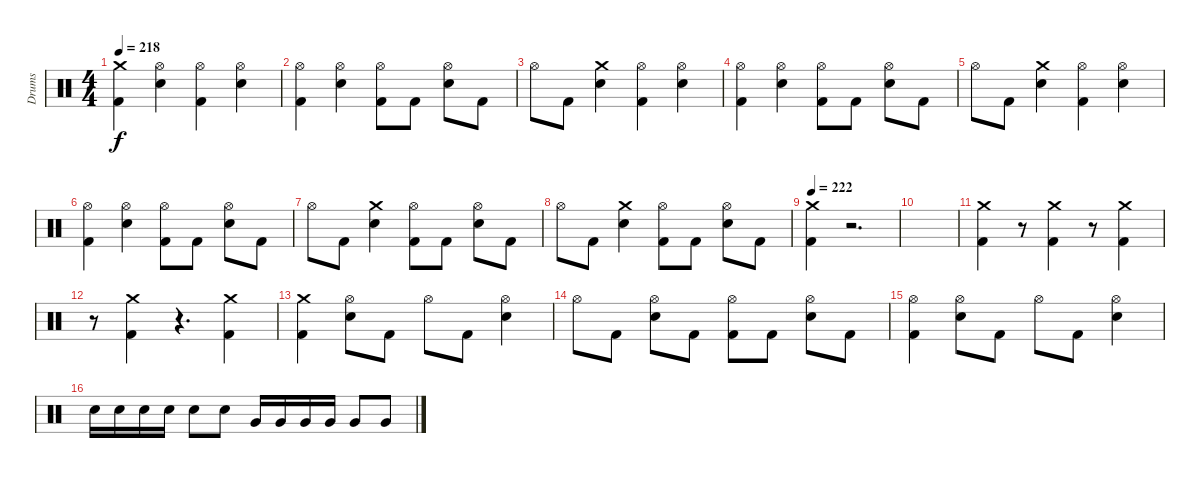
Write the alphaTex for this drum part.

\track ("Drums" "Drums") {instrument percussion}
\staff {score}
\articulation defaults
\ts (4 4)
\tempo 218
\clef neutral
\ks c
("Kick (hit) 2" "Crash medium (hit)").4{dy f} ("Snare (hit) 2" "Hi-Hat (open)").4 ("Kick (hit) 2" "Hi-Hat (open)").4 ("Snare (hit) 2" "Hi-Hat (open)").4 |
("Kick (hit) 2" "Hi-Hat (open)").4 ("Snare (hit) 2" "Hi-Hat (open)").4 ("Kick (hit) 2" "Hi-Hat (open)").8 "Kick (hit) 2".8 ("Snare (hit) 2" "Hi-Hat (open)").8 "Kick (hit) 2".8 |
"Hi-Hat (open)".8 "Kick (hit) 2".8 ("Snare (hit) 2" "Crash medium (hit)").4 ("Kick (hit) 2" "Hi-Hat (open)").4 ("Snare (hit) 2" "Hi-Hat (open)").4 |
("Kick (hit) 2" "Hi-Hat (open)").4 ("Snare (hit) 2" "Hi-Hat (open)").4 ("Kick (hit) 2" "Hi-Hat (open)").8 "Kick (hit) 2".8 ("Snare (hit) 2" "Hi-Hat (open)").8 "Kick (hit) 2".8 |
"Hi-Hat (open)".8 "Kick (hit) 2".8 ("Snare (hit) 2" "Crash medium (hit)").4 ("Kick (hit) 2" "Hi-Hat (open)").4 ("Snare (hit) 2" "Hi-Hat (open)").4 |
("Kick (hit) 2" "Hi-Hat (open)").4 ("Snare (hit) 2" "Hi-Hat (open)").4 ("Kick (hit) 2" "Hi-Hat (open)").8 "Kick (hit) 2".8 ("Snare (hit) 2" "Hi-Hat (open)").8 "Kick (hit) 2".8 |
"Hi-Hat (open)".8 "Kick (hit) 2".8 ("Snare (hit) 2" "Crash medium (hit)").4 ("Kick (hit) 2" "Hi-Hat (open)").8 "Kick (hit) 2".8 ("Snare (hit) 2" "Hi-Hat (open)").8 "Kick (hit) 2".8 |
"Hi-Hat (open)".8 "Kick (hit) 2".8 ("Snare (hit) 2" "Crash medium (hit)").4 ("Kick (hit) 2" "Hi-Hat (open)").8 "Kick (hit) 2".8 ("Snare (hit) 2" "Hi-Hat (open)").8 "Kick (hit) 2".8 |
\tempo 222
("Kick (hit) 2" "Crash medium (hit)").4 r.2{d} |
|
("Kick (hit) 2" "Crash medium (hit)").4 r.8 ("Kick (hit) 2" "Crash medium (hit)").4 r.8 ("Kick (hit) 2" "Crash medium (hit)").4 |
r.8 ("Kick (hit) 2" "Crash medium (hit)").4 r.4{d} ("Kick (hit) 2" "Crash medium (hit)").4 |
("Kick (hit) 2" "Crash medium (hit)").4 ("Snare (hit) 2" "Hi-Hat (open)").8 "Kick (hit) 2".8 "Hi-Hat (open)".8 "Kick (hit) 2".8 ("Snare (hit) 2" "Hi-Hat (open)").4 |
"Hi-Hat (open)".8 "Kick (hit) 2".8 ("Snare (hit) 2" "Hi-Hat (open)").8 "Kick (hit) 2".8 ("Kick (hit) 2" "Hi-Hat (open)").8 "Kick (hit) 2".8 ("Snare (hit) 2" "Hi-Hat (open)").8 "Kick (hit) 2".8 |
("Kick (hit) 2" "Hi-Hat (open)").4 ("Snare (hit) 2" "Hi-Hat (open)").8 "Kick (hit) 2".8 "Hi-Hat (open)".8 "Kick (hit) 2".8 ("Snare (hit) 2" "Hi-Hat (open)").4 |
"Snare (hit) 2".16 "Snare (hit) 2".16 "Snare (hit) 2".16 "Snare (hit) 2".16 "Snare (hit) 2".8 "Snare (hit) 2".8 "Very Low Tom (hit)".16 "Very Low Tom (hit)".16 "Very Low Tom (hit)".16 "Very Low Tom (hit)".16 "Very Low Tom (hit)".8 "Very Low Tom (hit)".8
